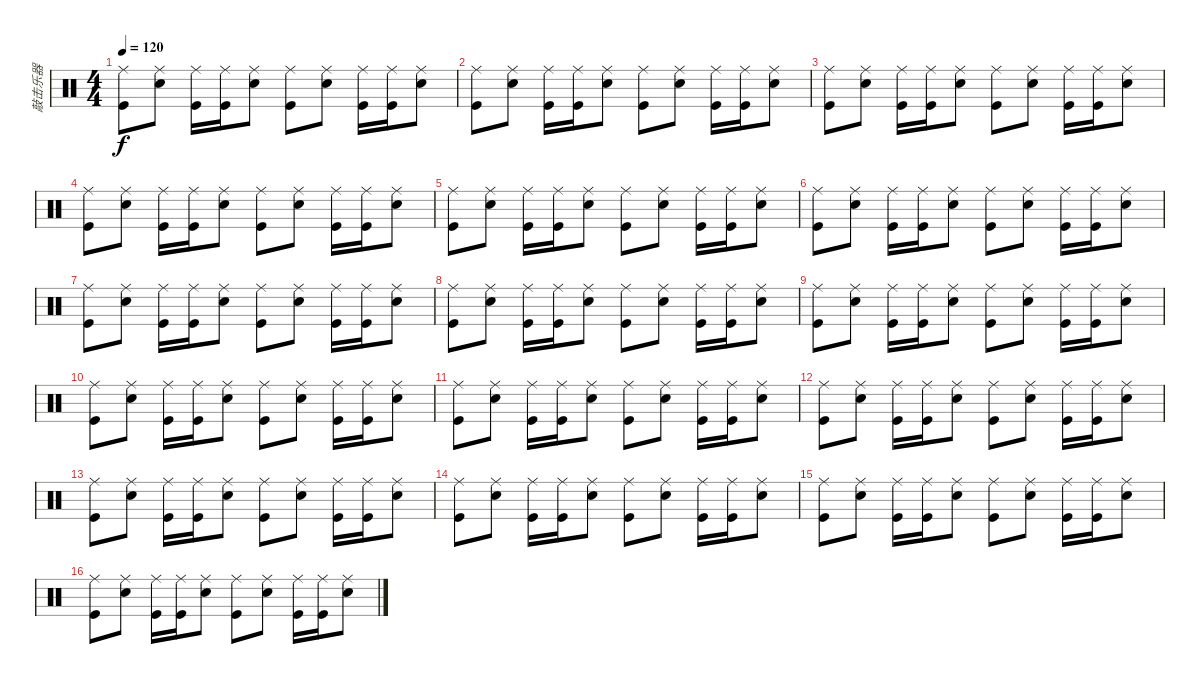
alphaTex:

\track ("敲击乐器" "敲击乐器") {instrument percussion}
\staff {score}
\articulation defaults
\ts (4 4)
\tempo 120
\clef neutral
\ks c
("Ride (middle)" "Kick (hit)").8{dy f} ("Ride (middle)" "Snare (hit) 2").8 ("Ride (middle)" "Kick (hit)").16 ("Ride (middle)" "Kick (hit)").16 ("Ride (middle)" "Snare (hit) 2").8 ("Ride (middle)" "Kick (hit)").8 ("Ride (middle)" "Snare (hit) 2").8 ("Ride (middle)" "Kick (hit)").16 ("Ride (middle)" "Kick (hit)").16 ("Ride (middle)" "Snare (hit) 2").8 |
("Ride (middle)" "Kick (hit)").8 ("Ride (middle)" "Snare (hit) 2").8 ("Ride (middle)" "Kick (hit)").16 ("Ride (middle)" "Kick (hit)").16 ("Ride (middle)" "Snare (hit) 2").8 ("Ride (middle)" "Kick (hit)").8 ("Ride (middle)" "Snare (hit) 2").8 ("Ride (middle)" "Kick (hit)").16 ("Ride (middle)" "Kick (hit)").16 ("Ride (middle)" "Snare (hit) 2").8 |
("Ride (middle)" "Kick (hit)").8 ("Ride (middle)" "Snare (hit) 2").8 ("Ride (middle)" "Kick (hit)").16 ("Ride (middle)" "Kick (hit)").16 ("Ride (middle)" "Snare (hit) 2").8 ("Ride (middle)" "Kick (hit)").8 ("Ride (middle)" "Snare (hit) 2").8 ("Ride (middle)" "Kick (hit)").16 ("Ride (middle)" "Kick (hit)").16 ("Ride (middle)" "Snare (hit) 2").8 |
("Ride (middle)" "Kick (hit)").8 ("Ride (middle)" "Snare (hit) 2").8 ("Ride (middle)" "Kick (hit)").16 ("Ride (middle)" "Kick (hit)").16 ("Ride (middle)" "Snare (hit) 2").8 ("Ride (middle)" "Kick (hit)").8 ("Ride (middle)" "Snare (hit) 2").8 ("Ride (middle)" "Kick (hit)").16 ("Ride (middle)" "Kick (hit)").16 ("Ride (middle)" "Snare (hit) 2").8 |
("Ride (middle)" "Kick (hit)").8 ("Ride (middle)" "Snare (hit) 2").8 ("Ride (middle)" "Kick (hit)").16 ("Ride (middle)" "Kick (hit)").16 ("Ride (middle)" "Snare (hit) 2").8 ("Ride (middle)" "Kick (hit)").8 ("Ride (middle)" "Snare (hit) 2").8 ("Ride (middle)" "Kick (hit)").16 ("Ride (middle)" "Kick (hit)").16 ("Ride (middle)" "Snare (hit) 2").8 |
("Ride (middle)" "Kick (hit)").8 ("Ride (middle)" "Snare (hit) 2").8 ("Ride (middle)" "Kick (hit)").16 ("Ride (middle)" "Kick (hit)").16 ("Ride (middle)" "Snare (hit) 2").8 ("Ride (middle)" "Kick (hit)").8 ("Ride (middle)" "Snare (hit) 2").8 ("Ride (middle)" "Kick (hit)").16 ("Ride (middle)" "Kick (hit)").16 ("Ride (middle)" "Snare (hit) 2").8 |
("Ride (middle)" "Kick (hit)").8 ("Ride (middle)" "Snare (hit) 2").8 ("Ride (middle)" "Kick (hit)").16 ("Ride (middle)" "Kick (hit)").16 ("Ride (middle)" "Snare (hit) 2").8 ("Ride (middle)" "Kick (hit)").8 ("Ride (middle)" "Snare (hit) 2").8 ("Ride (middle)" "Kick (hit)").16 ("Ride (middle)" "Kick (hit)").16 ("Ride (middle)" "Snare (hit) 2").8 |
("Ride (middle)" "Kick (hit)").8 ("Ride (middle)" "Snare (hit) 2").8 ("Ride (middle)" "Kick (hit)").16 ("Ride (middle)" "Kick (hit)").16 ("Ride (middle)" "Snare (hit) 2").8 ("Ride (middle)" "Kick (hit)").8 ("Ride (middle)" "Snare (hit) 2").8 ("Ride (middle)" "Kick (hit)").16 ("Ride (middle)" "Kick (hit)").16 ("Ride (middle)" "Snare (hit) 2").8 |
("Ride (middle)" "Kick (hit)").8 ("Ride (middle)" "Snare (hit) 2").8 ("Ride (middle)" "Kick (hit)").16 ("Ride (middle)" "Kick (hit)").16 ("Ride (middle)" "Snare (hit) 2").8 ("Ride (middle)" "Kick (hit)").8 ("Ride (middle)" "Snare (hit) 2").8 ("Ride (middle)" "Kick (hit)").16 ("Ride (middle)" "Kick (hit)").16 ("Ride (middle)" "Snare (hit) 2").8 |
("Ride (middle)" "Kick (hit)").8 ("Ride (middle)" "Snare (hit) 2").8 ("Ride (middle)" "Kick (hit)").16 ("Ride (middle)" "Kick (hit)").16 ("Ride (middle)" "Snare (hit) 2").8 ("Ride (middle)" "Kick (hit)").8 ("Ride (middle)" "Snare (hit) 2").8 ("Ride (middle)" "Kick (hit)").16 ("Ride (middle)" "Kick (hit)").16 ("Ride (middle)" "Snare (hit) 2").8 |
("Ride (middle)" "Kick (hit)").8 ("Ride (middle)" "Snare (hit) 2").8 ("Ride (middle)" "Kick (hit)").16 ("Ride (middle)" "Kick (hit)").16 ("Ride (middle)" "Snare (hit) 2").8 ("Ride (middle)" "Kick (hit)").8 ("Ride (middle)" "Snare (hit) 2").8 ("Ride (middle)" "Kick (hit)").16 ("Ride (middle)" "Kick (hit)").16 ("Ride (middle)" "Snare (hit) 2").8 |
("Ride (middle)" "Kick (hit)").8 ("Ride (middle)" "Snare (hit) 2").8 ("Ride (middle)" "Kick (hit)").16 ("Ride (middle)" "Kick (hit)").16 ("Ride (middle)" "Snare (hit) 2").8 ("Ride (middle)" "Kick (hit)").8 ("Ride (middle)" "Snare (hit) 2").8 ("Ride (middle)" "Kick (hit)").16 ("Ride (middle)" "Kick (hit)").16 ("Ride (middle)" "Snare (hit) 2").8 |
("Ride (middle)" "Kick (hit)").8 ("Ride (middle)" "Snare (hit) 2").8 ("Ride (middle)" "Kick (hit)").16 ("Ride (middle)" "Kick (hit)").16 ("Ride (middle)" "Snare (hit) 2").8 ("Ride (middle)" "Kick (hit)").8 ("Ride (middle)" "Snare (hit) 2").8 ("Ride (middle)" "Kick (hit)").16 ("Ride (middle)" "Kick (hit)").16 ("Ride (middle)" "Snare (hit) 2").8 |
("Ride (middle)" "Kick (hit)").8 ("Ride (middle)" "Snare (hit) 2").8 ("Ride (middle)" "Kick (hit)").16 ("Ride (middle)" "Kick (hit)").16 ("Ride (middle)" "Snare (hit) 2").8 ("Ride (middle)" "Kick (hit)").8 ("Ride (middle)" "Snare (hit) 2").8 ("Ride (middle)" "Kick (hit)").16 ("Ride (middle)" "Kick (hit)").16 ("Ride (middle)" "Snare (hit) 2").8 |
("Ride (middle)" "Kick (hit)").8 ("Ride (middle)" "Snare (hit) 2").8 ("Ride (middle)" "Kick (hit)").16 ("Ride (middle)" "Kick (hit)").16 ("Ride (middle)" "Snare (hit) 2").8 ("Ride (middle)" "Kick (hit)").8 ("Ride (middle)" "Snare (hit) 2").8 ("Ride (middle)" "Kick (hit)").16 ("Ride (middle)" "Kick (hit)").16 ("Ride (middle)" "Snare (hit) 2").8 |
("Ride (middle)" "Kick (hit)").8 ("Ride (middle)" "Snare (hit) 2").8 ("Ride (middle)" "Kick (hit)").16 ("Ride (middle)" "Kick (hit)").16 ("Ride (middle)" "Snare (hit) 2").8 ("Ride (middle)" "Kick (hit)").8 ("Ride (middle)" "Snare (hit) 2").8 ("Ride (middle)" "Kick (hit)").16 ("Ride (middle)" "Kick (hit)").16 ("Ride (middle)" "Snare (hit) 2").8
